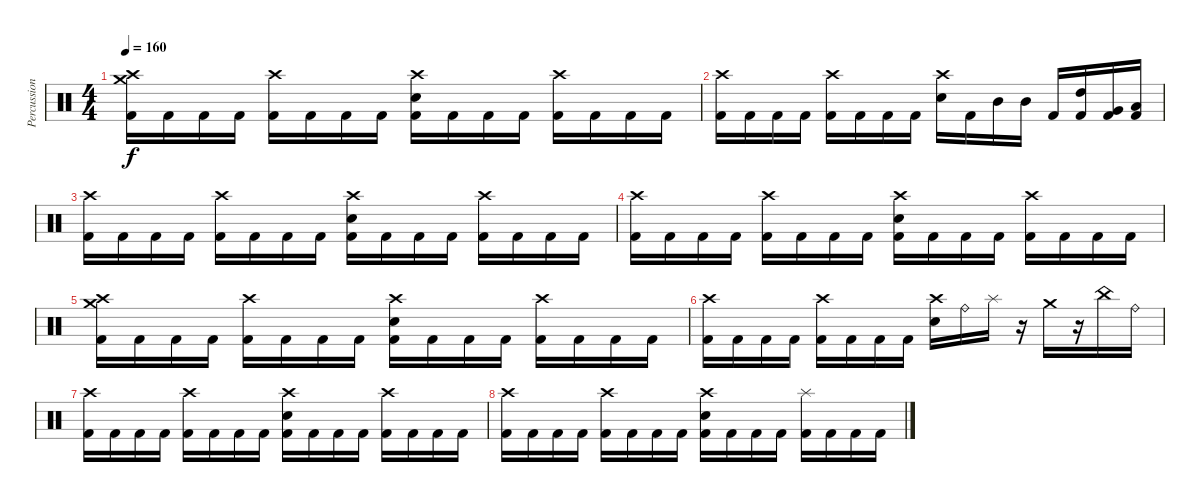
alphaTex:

\track ("Percussion" "Percussion") {instrument percussion}
\staff {score}
\articulation defaults
\ts (4 4)
\tempo 160
\clef neutral
\ks c
("Crash high (hit)" "Crash medium (hit)" "Kick (hit) 2").16{dy f} "Kick (hit) 2".16 "Kick (hit) 2".16 "Kick (hit) 2".16 ("Crash high (hit)" "Kick (hit) 2").16 "Kick (hit) 2".16 "Kick (hit) 2".16 "Kick (hit) 2".16 ("Crash high (hit)" "Snare (hit) 2" "Kick (hit) 2").16 "Kick (hit) 2".16 "Kick (hit) 2".16 "Kick (hit) 2".16 ("Crash high (hit)" "Kick (hit) 2").16 "Kick (hit) 2".16 "Kick (hit) 2".16 "Kick (hit) 2".16 |
("Crash high (hit)" "Kick (hit) 2").16 "Kick (hit) 2".16 "Kick (hit) 2".16 "Kick (hit) 2".16 ("Crash high (hit)" "Kick (hit) 2").16 "Kick (hit) 2".16 "Kick (hit) 2".16 "Kick (hit) 2".16 ("Crash high (hit)" "Snare (hit) 2").16 "Kick (hit) 2".16 "Mid Tom (hit)".16 "Mid Tom (hit)".16 "Kick (hit) 2".16 ("High Tom (hit)" "Kick (hit) 2").16 ("Very Low Tom (hit)" "Kick (hit) 2").16 ("Low Floor Tom (hit)" "Kick (hit) 2").16 |
("Crash high (hit)" "Kick (hit) 2").16 "Kick (hit) 2".16 "Kick (hit) 2".16 "Kick (hit) 2".16 ("Crash high (hit)" "Kick (hit) 2").16 "Kick (hit) 2".16 "Kick (hit) 2".16 "Kick (hit) 2".16 ("Crash high (hit)" "Snare (hit) 2" "Kick (hit) 2").16 "Kick (hit) 2".16 "Kick (hit) 2".16 "Kick (hit) 2".16 ("Crash high (hit)" "Kick (hit) 2").16 "Kick (hit) 2".16 "Kick (hit) 2".16 "Kick (hit) 2".16 |
("Crash high (hit)" "Kick (hit) 2").16 "Kick (hit) 2".16 "Kick (hit) 2".16 "Kick (hit) 2".16 ("Crash high (hit)" "Kick (hit) 2").16 "Kick (hit) 2".16 "Kick (hit) 2".16 "Kick (hit) 2".16 ("Crash high (hit)" "Snare (hit) 2" "Kick (hit) 2").16 "Kick (hit) 2".16 "Kick (hit) 2".16 "Kick (hit) 2".16 ("Crash high (hit)" "Kick (hit) 2").16 "Kick (hit) 2".16 "Kick (hit) 2".16 "Kick (hit) 2".16 |
("Crash high (hit)" "Crash medium (hit)" "Kick (hit) 2").16 "Kick (hit) 2".16 "Kick (hit) 2".16 "Kick (hit) 2".16 ("Crash high (hit)" "Kick (hit) 2").16 "Kick (hit) 2".16 "Kick (hit) 2".16 "Kick (hit) 2".16 ("Crash high (hit)" "Snare (hit) 2" "Kick (hit) 2").16 "Kick (hit) 2".16 "Kick (hit) 2".16 "Kick (hit) 2".16 ("Crash high (hit)" "Kick (hit) 2").16 "Kick (hit) 2".16 "Kick (hit) 2".16 "Kick (hit) 2".16 |
("Crash high (hit)" "Kick (hit) 2").16 "Kick (hit) 2".16 "Kick (hit) 2".16 "Kick (hit) 2".16 ("Crash high (hit)" "Kick (hit) 2").16 "Kick (hit) 2".16 "Kick (hit) 2".16 "Kick (hit) 2".16 ("Crash high (hit)" "Snare (hit) 2").16 "Ride (bell)".16 "Splash (hit)".16 r.16 "Crash medium (hit)".16 r.16 "China (hit)".16 "Ride (bell)".16 |
("Crash high (hit)" "Kick (hit) 2").16 "Kick (hit) 2".16 "Kick (hit) 2".16 "Kick (hit) 2".16 ("Crash high (hit)" "Kick (hit) 2").16 "Kick (hit) 2".16 "Kick (hit) 2".16 "Kick (hit) 2".16 ("Crash high (hit)" "Snare (hit) 2" "Kick (hit) 2").16 "Kick (hit) 2".16 "Kick (hit) 2".16 "Kick (hit) 2".16 ("Crash high (hit)" "Kick (hit) 2").16 "Kick (hit) 2".16 "Kick (hit) 2".16 "Kick (hit) 2".16 |
("Crash high (hit)" "Kick (hit) 2").16 "Kick (hit) 2".16 "Kick (hit) 2".16 "Kick (hit) 2".16 ("Crash high (hit)" "Kick (hit) 2").16 "Kick (hit) 2".16 "Kick (hit) 2".16 "Kick (hit) 2".16 ("Crash high (hit)" "Snare (hit) 2" "Kick (hit) 2").16 "Kick (hit) 2".16 "Kick (hit) 2".16 "Kick (hit) 2".16 ("Splash (hit)" "Kick (hit) 2").16 "Kick (hit) 2".16 "Kick (hit) 2".16 "Kick (hit) 2".16
